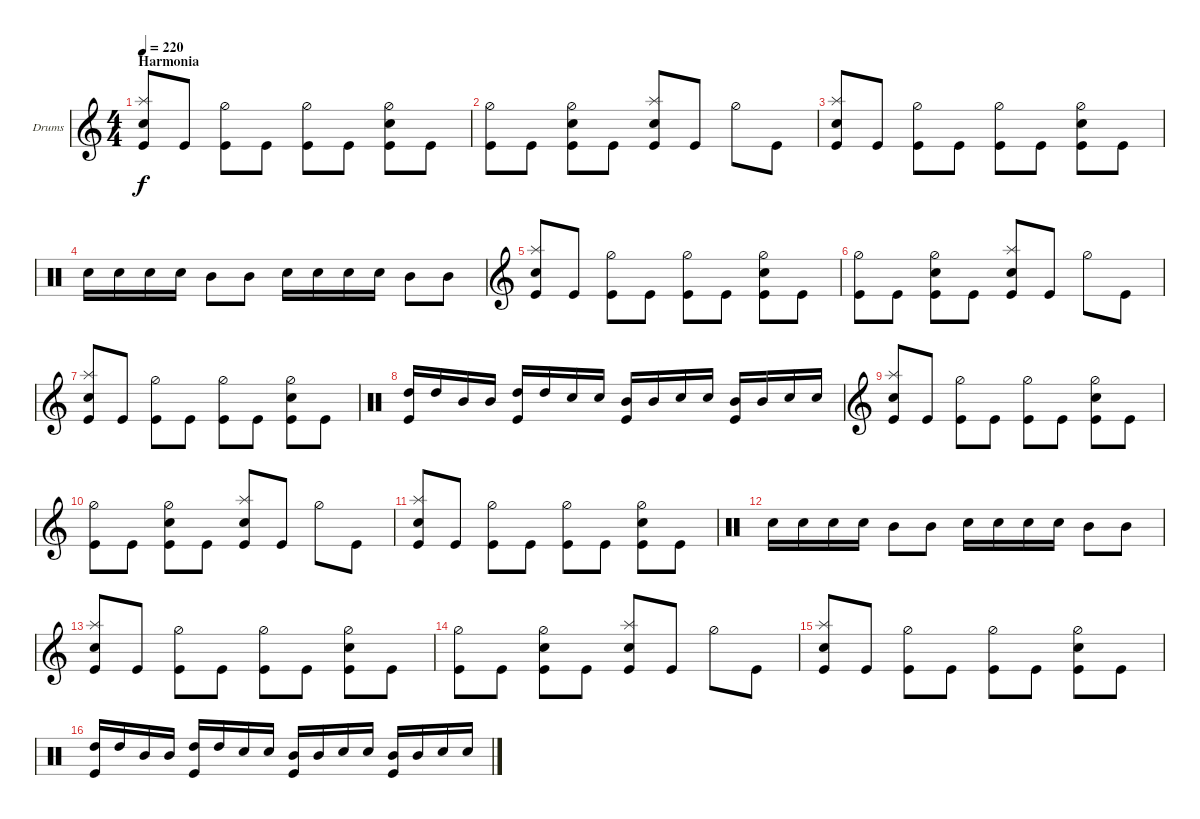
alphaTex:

\defaultSystemsLayout 4
\bracketExtendMode groupsimilarinstruments
\firstSystemTrackNameOrientation horizontal
\otherSystemsTrackNameOrientation horizontal
\track ("Drumkit" "Drums") {instrument percussion}
\staff {score}
\articulation defaults
\ts (4 4)
\section ("" "Harmonia")
\tempo 220
\clef g2
\ks c
("Snare (hit) 2" "Splash (hit)" "Kick (hit)").8{dy f} "Kick (hit)".8 ("Hi-Hat (half)" "Kick (hit)").8 "Kick (hit)".8 ("Hi-Hat (half)" "Kick (hit)").8 "Kick (hit)".8 ("Snare (hit) 2" "Hi-Hat (half)" "Kick (hit)").8 "Kick (hit)".8 |
("Hi-Hat (half)" "Kick (hit)").8 "Kick (hit)".8 ("Snare (hit) 2" "Hi-Hat (half)" "Kick (hit)").8 "Kick (hit)".8 ("Snare (hit) 2" "Splash (hit)" "Kick (hit)").8 "Kick (hit)".8 "Hi-Hat (half)".8 "Kick (hit)".8 |
("Snare (hit) 2" "Splash (hit)" "Kick (hit)").8 "Kick (hit)".8 ("Hi-Hat (half)" "Kick (hit)").8 "Kick (hit)".8 ("Hi-Hat (half)" "Kick (hit)").8 "Kick (hit)".8 ("Snare (hit) 2" "Hi-Hat (half)" "Kick (hit)").8 "Kick (hit)".8 |
\clef neutral "Snare (hit) 2".16 "Snare (hit) 2".16 "Snare (hit) 2".16 "Snare (hit) 2".16 "Mid Tom (hit)".8 "Mid Tom (hit)".8 "Snare (hit) 2".16 "Snare (hit) 2".16 "Snare (hit) 2".16 "Snare (hit) 2".16 "Mid Tom (hit)".8 "Mid Tom (hit)".8
|
\clef g2
("Snare (hit) 2" "Splash (hit)" "Kick (hit)").8 "Kick (hit)".8 ("Hi-Hat (half)" "Kick (hit)").8 "Kick (hit)".8 ("Hi-Hat (half)" "Kick (hit)").8 "Kick (hit)".8 ("Snare (hit) 2" "Hi-Hat (half)" "Kick (hit)").8 "Kick (hit)".8 |
("Hi-Hat (half)" "Kick (hit)").8 "Kick (hit)".8 ("Snare (hit) 2" "Hi-Hat (half)" "Kick (hit)").8 "Kick (hit)".8 ("Snare (hit) 2" "Splash (hit)" "Kick (hit)").8 "Kick (hit)".8 "Hi-Hat (half)".8 "Kick (hit)".8 |
("Snare (hit) 2" "Splash (hit)" "Kick (hit)").8 "Kick (hit)".8 ("Hi-Hat (half)" "Kick (hit)").8 "Kick (hit)".8 ("Hi-Hat (half)" "Kick (hit)").8 "Kick (hit)".8 ("Snare (hit) 2" "Hi-Hat (half)" "Kick (hit)").8 "Kick (hit)".8 |
\clef neutral
("High Tom (hit)" "Kick (hit)").16 "High Tom (hit)".16 "Mid Tom (hit)".16 "Mid Tom (hit)".16 ("High Tom (hit)" "Kick (hit)").16 "High Tom (hit)".16 "Snare (hit) 2".16 "Snare (hit) 2".16 ("Mid Tom (hit)" "Kick (hit)").16 "Mid Tom (hit)".16 "Snare (hit) 2".16 "Snare (hit) 2".16 ("Mid Tom (hit)" "Kick (hit)").16 "Mid Tom (hit)".16 "Snare (hit) 2".16 "Snare (hit) 2".16 |
\clef g2
("Snare (hit) 2" "Splash (hit)" "Kick (hit)").8 "Kick (hit)".8 ("Hi-Hat (half)" "Kick (hit)").8 "Kick (hit)".8 ("Hi-Hat (half)" "Kick (hit)").8 "Kick (hit)".8 ("Snare (hit) 2" "Hi-Hat (half)" "Kick (hit)").8 "Kick (hit)".8 |
("Hi-Hat (half)" "Kick (hit)").8 "Kick (hit)".8 ("Snare (hit) 2" "Hi-Hat (half)" "Kick (hit)").8 "Kick (hit)".8 ("Snare (hit) 2" "Splash (hit)" "Kick (hit)").8 "Kick (hit)".8 "Hi-Hat (half)".8 "Kick (hit)".8 |
("Snare (hit) 2" "Splash (hit)" "Kick (hit)").8 "Kick (hit)".8 ("Hi-Hat (half)" "Kick (hit)").8 "Kick (hit)".8 ("Hi-Hat (half)" "Kick (hit)").8 "Kick (hit)".8 ("Snare (hit) 2" "Hi-Hat (half)" "Kick (hit)").8 "Kick (hit)".8 |
\clef neutral "Snare (hit) 2".16 "Snare (hit) 2".16 "Snare (hit) 2".16 "Snare (hit) 2".16 "Mid Tom (hit)".8 "Mid Tom (hit)".8 "Snare (hit) 2".16 "Snare (hit) 2".16 "Snare (hit) 2".16 "Snare (hit) 2".16 "Mid Tom (hit)".8 "Mid Tom (hit)".8
|
\clef g2
("Snare (hit) 2" "Splash (hit)" "Kick (hit)").8 "Kick (hit)".8 ("Hi-Hat (half)" "Kick (hit)").8 "Kick (hit)".8 ("Hi-Hat (half)" "Kick (hit)").8 "Kick (hit)".8 ("Snare (hit) 2" "Hi-Hat (half)" "Kick (hit)").8 "Kick (hit)".8 |
("Hi-Hat (half)" "Kick (hit)").8 "Kick (hit)".8 ("Snare (hit) 2" "Hi-Hat (half)" "Kick (hit)").8 "Kick (hit)".8 ("Snare (hit) 2" "Splash (hit)" "Kick (hit)").8 "Kick (hit)".8 "Hi-Hat (half)".8 "Kick (hit)".8 |
("Snare (hit) 2" "Splash (hit)" "Kick (hit)").8 "Kick (hit)".8 ("Hi-Hat (half)" "Kick (hit)").8 "Kick (hit)".8 ("Hi-Hat (half)" "Kick (hit)").8 "Kick (hit)".8 ("Snare (hit) 2" "Hi-Hat (half)" "Kick (hit)").8 "Kick (hit)".8 |
\clef neutral
("High Tom (hit)" "Kick (hit)").16 "High Tom (hit)".16 "Mid Tom (hit)".16 "Mid Tom (hit)".16 ("High Tom (hit)" "Kick (hit)").16 "High Tom (hit)".16 "Snare (hit) 2".16 "Snare (hit) 2".16 ("Mid Tom (hit)" "Kick (hit)").16 "Mid Tom (hit)".16 "Snare (hit) 2".16 "Snare (hit) 2".16 ("Mid Tom (hit)" "Kick (hit)").16 "Mid Tom (hit)".16 "Snare (hit) 2".16 "Snare (hit) 2".16
